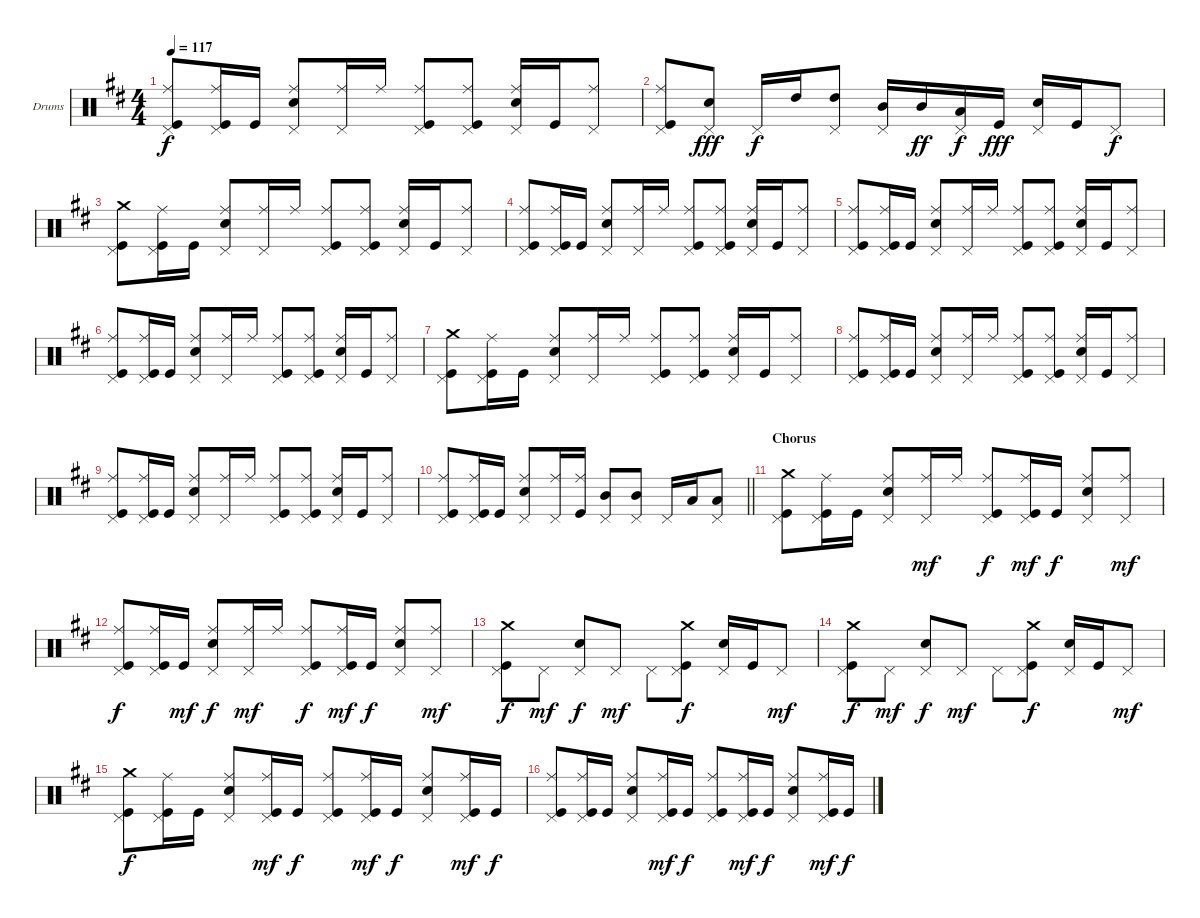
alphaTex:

\bracketExtendMode groupsimilarinstruments
\firstSystemTrackNameOrientation horizontal
\otherSystemsTrackNameOrientation horizontal
\track ("Барабаны" "Drums") {instrument percussion}
\staff {score}
\articulation defaults
\ts (4 4)
\tempo 117
\clef neutral
\ks d
("Kick (hit)" "Ride (middle)" "Pedal Hi-Hat (hit)").8{dy f} ("Kick (hit)" "Ride (middle)" "Pedal Hi-Hat (hit)").16 "Kick (hit)".16 ("Snare (hit) 2" "Ride (middle)" "Pedal Hi-Hat (hit)").8 ("Ride (middle)" "Pedal Hi-Hat (hit)").16 "Ride (middle)".16 ("Kick (hit)" "Ride (middle)" "Pedal Hi-Hat (hit)").8 ("Ride (middle)" "Kick (hit)" "Pedal Hi-Hat (hit)").8 ("Snare (hit) 2" "Ride (middle)" "Pedal Hi-Hat (hit)").16 "Kick (hit)".16 ("Ride (middle)" "Pedal Hi-Hat (hit)").8 |
("Kick (hit)" "Pedal Hi-Hat (hit)" "Ride (middle)").8 ("Snare (hit) 2" "Pedal Hi-Hat (hit)").8{dy fff} "Pedal Hi-Hat (hit)".16{dy f} "High Tom (hit)".16 ("Pedal Hi-Hat (hit)" "High Tom (hit)").8 ("Pedal Hi-Hat (hit)" "Mid Tom (hit)").16 "Mid Tom (hit)".16{dy ff} ("Pedal Hi-Hat (hit)" "Low Tom (hit)").16{dy f} "Kick (hit)".16{dy fff} ("Snare (hit) 2" "Pedal Hi-Hat (hit)").16 "Kick (hit)".16 "Pedal Hi-Hat (hit)".8{dy f} |
("Kick (hit)" "Crash medium (hit)" "Pedal Hi-Hat (hit)").8 ("Kick (hit)" "Ride (middle)" "Pedal Hi-Hat (hit)").16 "Kick (hit)".16 ("Snare (hit) 2" "Ride (middle)" "Pedal Hi-Hat (hit)").8 ("Ride (middle)" "Pedal Hi-Hat (hit)").16 "Ride (middle)".16 ("Kick (hit)" "Ride (middle)" "Pedal Hi-Hat (hit)").8 ("Ride (middle)" "Kick (hit)" "Pedal Hi-Hat (hit)").8 ("Snare (hit) 2" "Ride (middle)" "Pedal Hi-Hat (hit)").16 "Kick (hit)".16 ("Ride (middle)" "Pedal Hi-Hat (hit)").8 |
("Kick (hit)" "Ride (middle)" "Pedal Hi-Hat (hit)").8 ("Kick (hit)" "Ride (middle)" "Pedal Hi-Hat (hit)").16 "Kick (hit)".16 ("Snare (hit) 2" "Ride (middle)" "Pedal Hi-Hat (hit)").8 ("Ride (middle)" "Pedal Hi-Hat (hit)").16 "Ride (middle)".16 ("Kick (hit)" "Ride (middle)" "Pedal Hi-Hat (hit)").8 ("Ride (middle)" "Kick (hit)" "Pedal Hi-Hat (hit)").8 ("Snare (hit) 2" "Ride (middle)" "Pedal Hi-Hat (hit)").16 "Kick (hit)".16 ("Ride (middle)" "Pedal Hi-Hat (hit)").8 |
("Kick (hit)" "Ride (middle)" "Pedal Hi-Hat (hit)").8 ("Kick (hit)" "Ride (middle)" "Pedal Hi-Hat (hit)").16 "Kick (hit)".16 ("Snare (hit) 2" "Ride (middle)" "Pedal Hi-Hat (hit)").8 ("Ride (middle)" "Pedal Hi-Hat (hit)").16 "Ride (middle)".16 ("Kick (hit)" "Ride (middle)" "Pedal Hi-Hat (hit)").8 ("Ride (middle)" "Kick (hit)" "Pedal Hi-Hat (hit)").8 ("Snare (hit) 2" "Ride (middle)" "Pedal Hi-Hat (hit)").16 "Kick (hit)".16 ("Ride (middle)" "Pedal Hi-Hat (hit)").8 |
("Kick (hit)" "Ride (middle)" "Pedal Hi-Hat (hit)").8 ("Kick (hit)" "Ride (middle)" "Pedal Hi-Hat (hit)").16 "Kick (hit)".16 ("Snare (hit) 2" "Ride (middle)" "Pedal Hi-Hat (hit)").8 ("Ride (middle)" "Pedal Hi-Hat (hit)").16 "Ride (middle)".16 ("Kick (hit)" "Ride (middle)" "Pedal Hi-Hat (hit)").8 ("Ride (middle)" "Kick (hit)" "Pedal Hi-Hat (hit)").8 ("Snare (hit) 2" "Ride (middle)" "Pedal Hi-Hat (hit)").16 "Kick (hit)".16 ("Ride (middle)" "Pedal Hi-Hat (hit)").8 |
("Kick (hit)" "Crash medium (hit)" "Pedal Hi-Hat (hit)").8 ("Kick (hit)" "Ride (middle)" "Pedal Hi-Hat (hit)").16 "Kick (hit)".16 ("Snare (hit) 2" "Ride (middle)" "Pedal Hi-Hat (hit)").8 ("Ride (middle)" "Pedal Hi-Hat (hit)").16 "Ride (middle)".16 ("Kick (hit)" "Ride (middle)" "Pedal Hi-Hat (hit)").8 ("Ride (middle)" "Kick (hit)" "Pedal Hi-Hat (hit)").8 ("Snare (hit) 2" "Ride (middle)" "Pedal Hi-Hat (hit)").16 "Kick (hit)".16 ("Ride (middle)" "Pedal Hi-Hat (hit)").8 |
("Kick (hit)" "Ride (middle)" "Pedal Hi-Hat (hit)").8 ("Kick (hit)" "Ride (middle)" "Pedal Hi-Hat (hit)").16 "Kick (hit)".16 ("Snare (hit) 2" "Ride (middle)" "Pedal Hi-Hat (hit)").8 ("Ride (middle)" "Pedal Hi-Hat (hit)").16 "Ride (middle)".16 ("Kick (hit)" "Ride (middle)" "Pedal Hi-Hat (hit)").8 ("Ride (middle)" "Kick (hit)" "Pedal Hi-Hat (hit)").8 ("Snare (hit) 2" "Ride (middle)" "Pedal Hi-Hat (hit)").16 "Kick (hit)".16 ("Ride (middle)" "Pedal Hi-Hat (hit)").8 |
("Kick (hit)" "Ride (middle)" "Pedal Hi-Hat (hit)").8 ("Kick (hit)" "Ride (middle)" "Pedal Hi-Hat (hit)").16 "Kick (hit)".16 ("Snare (hit) 2" "Ride (middle)" "Pedal Hi-Hat (hit)").8 ("Ride (middle)" "Pedal Hi-Hat (hit)").16 "Ride (middle)".16 ("Kick (hit)" "Ride (middle)" "Pedal Hi-Hat (hit)").8 ("Ride (middle)" "Kick (hit)" "Pedal Hi-Hat (hit)").8 ("Snare (hit) 2" "Ride (middle)" "Pedal Hi-Hat (hit)").16 "Kick (hit)".16 ("Ride (middle)" "Pedal Hi-Hat (hit)").8 |
\barLineRight lightlight
("Kick (hit)" "Ride (middle)" "Pedal Hi-Hat (hit)").8 ("Kick (hit)" "Ride (middle)" "Pedal Hi-Hat (hit)").16 "Kick (hit)".16 ("Snare (hit) 2" "Ride (middle)" "Pedal Hi-Hat (hit)").8 ("Ride (middle)" "Pedal Hi-Hat (hit)").16 ("Ride (middle)" "Kick (hit)").16 ("Mid Tom (hit)" "Pedal Hi-Hat (hit)").8 ("Mid Tom (hit)" "Pedal Hi-Hat (hit)").8 "Pedal Hi-Hat (hit)".16 "Low Tom (hit)".16 ("Pedal Hi-Hat (hit)" "Low Tom (hit)").8 |
\section ("" "Chorus")
("Kick (hit)" "Crash medium (hit)" "Pedal Hi-Hat (hit)").8 ("Kick (hit)" "Ride (middle)" "Pedal Hi-Hat (hit)").16 "Kick (hit)".16 ("Snare (hit) 2" "Ride (middle)" "Pedal Hi-Hat (hit)").8 ("Ride (middle)" "Pedal Hi-Hat (hit)").16{dy mf} "Ride (middle)".16 ("Kick (hit)" "Ride (middle)" "Pedal Hi-Hat (hit)").8{dy f} ("Ride (middle)" "Kick (hit)" "Pedal Hi-Hat (hit)").16{dy mf} "Kick (hit)".16{dy f} ("Snare (hit) 2" "Ride (middle)" "Pedal Hi-Hat (hit)").8 ("Ride (middle)" "Pedal Hi-Hat (hit)").8{dy mf} |
("Kick (hit)" "Ride (middle)" "Pedal Hi-Hat (hit)").8{dy f} ("Kick (hit)" "Ride (middle)" "Pedal Hi-Hat (hit)").16 "Kick (hit)".16{dy mf} ("Snare (hit) 2" "Ride (middle)" "Pedal Hi-Hat (hit)").8{dy f} ("Ride (middle)" "Pedal Hi-Hat (hit)").16{dy mf} "Ride (middle)".16 ("Kick (hit)" "Ride (middle)" "Pedal Hi-Hat (hit)").8{dy f} ("Ride (middle)" "Kick (hit)" "Pedal Hi-Hat (hit)").16{dy mf} "Kick (hit)".16{dy f} ("Snare (hit) 2" "Ride (middle)" "Pedal Hi-Hat (hit)").8 ("Ride (middle)" "Pedal Hi-Hat (hit)").8{dy mf} |
("Kick (hit)" "Crash medium (hit)" "Pedal Hi-Hat (hit)").8{dy f} "Pedal Hi-Hat (hit)".8{dy mf} ("Snare (hit) 2" "Pedal Hi-Hat (hit)").8{dy f} "Pedal Hi-Hat (hit)".8{dy mf} "Pedal Hi-Hat (hit)".8 ("Kick (hit)" "Crash medium (hit)" "Pedal Hi-Hat (hit)").8{dy f} ("Snare (hit) 2" "Pedal Hi-Hat (hit)").16 "Kick (hit)".16 "Pedal Hi-Hat (hit)".8{dy mf} |
("Kick (hit)" "Crash medium (hit)" "Pedal Hi-Hat (hit)").8{dy f} "Pedal Hi-Hat (hit)".8{dy mf} ("Snare (hit) 2" "Pedal Hi-Hat (hit)").8{dy f} "Pedal Hi-Hat (hit)".8{dy mf} "Pedal Hi-Hat (hit)".8 ("Kick (hit)" "Crash medium (hit)" "Pedal Hi-Hat (hit)").8{dy f} ("Snare (hit) 2" "Pedal Hi-Hat (hit)").16 "Kick (hit)".16 "Pedal Hi-Hat (hit)".8{dy mf} |
("Kick (hit)" "Crash medium (hit)" "Pedal Hi-Hat (hit)").8{dy f} ("Kick (hit)" "Ride (middle)" "Pedal Hi-Hat (hit)").16 "Kick (hit)".16 ("Snare (hit) 2" "Ride (middle)" "Pedal Hi-Hat (hit)").8 ("Ride (middle)" "Kick (hit)" "Pedal Hi-Hat (hit)").16{dy mf} "Kick (hit)".16{dy f} ("Kick (hit)" "Ride (middle)" "Pedal Hi-Hat (hit)").8 ("Ride (middle)" "Kick (hit)" "Pedal Hi-Hat (hit)").16{dy mf} "Kick (hit)".16{dy f} ("Snare (hit) 2" "Ride (middle)" "Pedal Hi-Hat (hit)").8 ("Ride (middle)" "Kick (hit)" "Pedal Hi-Hat (hit)").16{dy mf} "Kick (hit)".16{dy f} |
("Kick (hit)" "Ride (middle)" "Pedal Hi-Hat (hit)").8 ("Kick (hit)" "Ride (middle)" "Pedal Hi-Hat (hit)").16 "Kick (hit)".16 ("Snare (hit) 2" "Ride (middle)" "Pedal Hi-Hat (hit)").8 ("Ride (middle)" "Kick (hit)" "Pedal Hi-Hat (hit)").16{dy mf} "Kick (hit)".16{dy f} ("Kick (hit)" "Ride (middle)" "Pedal Hi-Hat (hit)").8 ("Ride (middle)" "Kick (hit)" "Pedal Hi-Hat (hit)").16{dy mf} "Kick (hit)".16{dy f} ("Snare (hit) 2" "Ride (middle)" "Pedal Hi-Hat (hit)").8 ("Ride (middle)" "Kick (hit)" "Pedal Hi-Hat (hit)").16{dy mf} "Kick (hit)".16{dy f}
